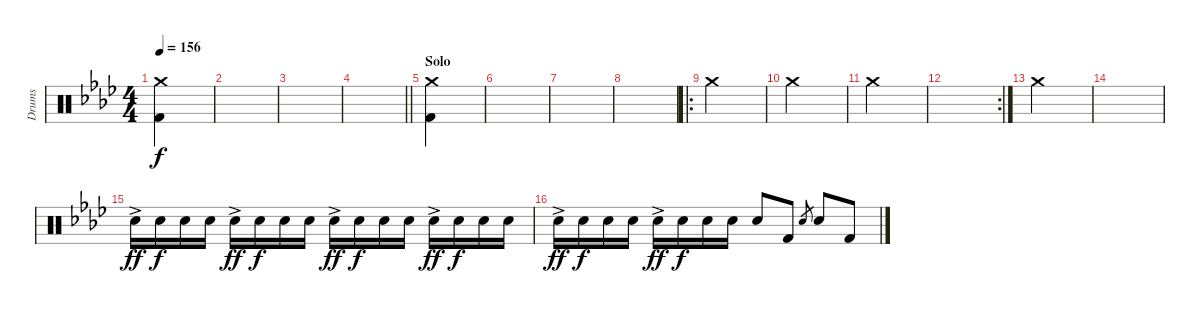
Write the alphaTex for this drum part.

\track ("Drums" "Drums") {instrument percussion}
\staff {score}
\articulation defaults
\ts (4 4)
\tempo 156
\clef neutral
\ks fminor
("Kick (hit) 2" "Crash medium (hit)").4{dy f} |
|
|
\barLineRight lightlight
|
\section ("" "Solo")
("Crash medium (hit)" "Kick (hit) 2").4 |
|
|
|
\ro "Crash medium (hit)".4
|
"Crash medium (hit)".4 |
"Crash medium (hit)".4 |
\rc 2
|
"Crash medium (hit)".4 |
|
"Electric Snare (hit)"{ac}.16{dy ff} "Electric Snare (hit)".16{dy f} "Electric Snare (hit)".16 "Electric Snare (hit)".16 "Electric Snare (hit)"{ac}.16{dy ff} "Electric Snare (hit)".16{dy f} "Electric Snare (hit)".16 "Electric Snare (hit)".16 "Electric Snare (hit)"{ac}.16{dy ff} "Electric Snare (hit)".16{dy f} "Electric Snare (hit)".16 "Electric Snare (hit)".16 "Electric Snare (hit)"{ac}.16{dy ff} "Electric Snare (hit)".16{dy f} "Electric Snare (hit)".16 "Electric Snare (hit)".16 |
"Electric Snare (hit)"{ac}.16{dy ff} "Electric Snare (hit)".16{dy f} "Electric Snare (hit)".16 "Electric Snare (hit)".16 "Electric Snare (hit)"{ac}.16{dy ff} "Electric Snare (hit)".16{dy f} "Electric Snare (hit)".16 "Electric Snare (hit)".16 "Electric Snare (hit)".8 "Kick (hit) 2".8 "Electric Snare (hit)".8{gr} "Electric Snare (hit)".8 "Kick (hit) 2".8
